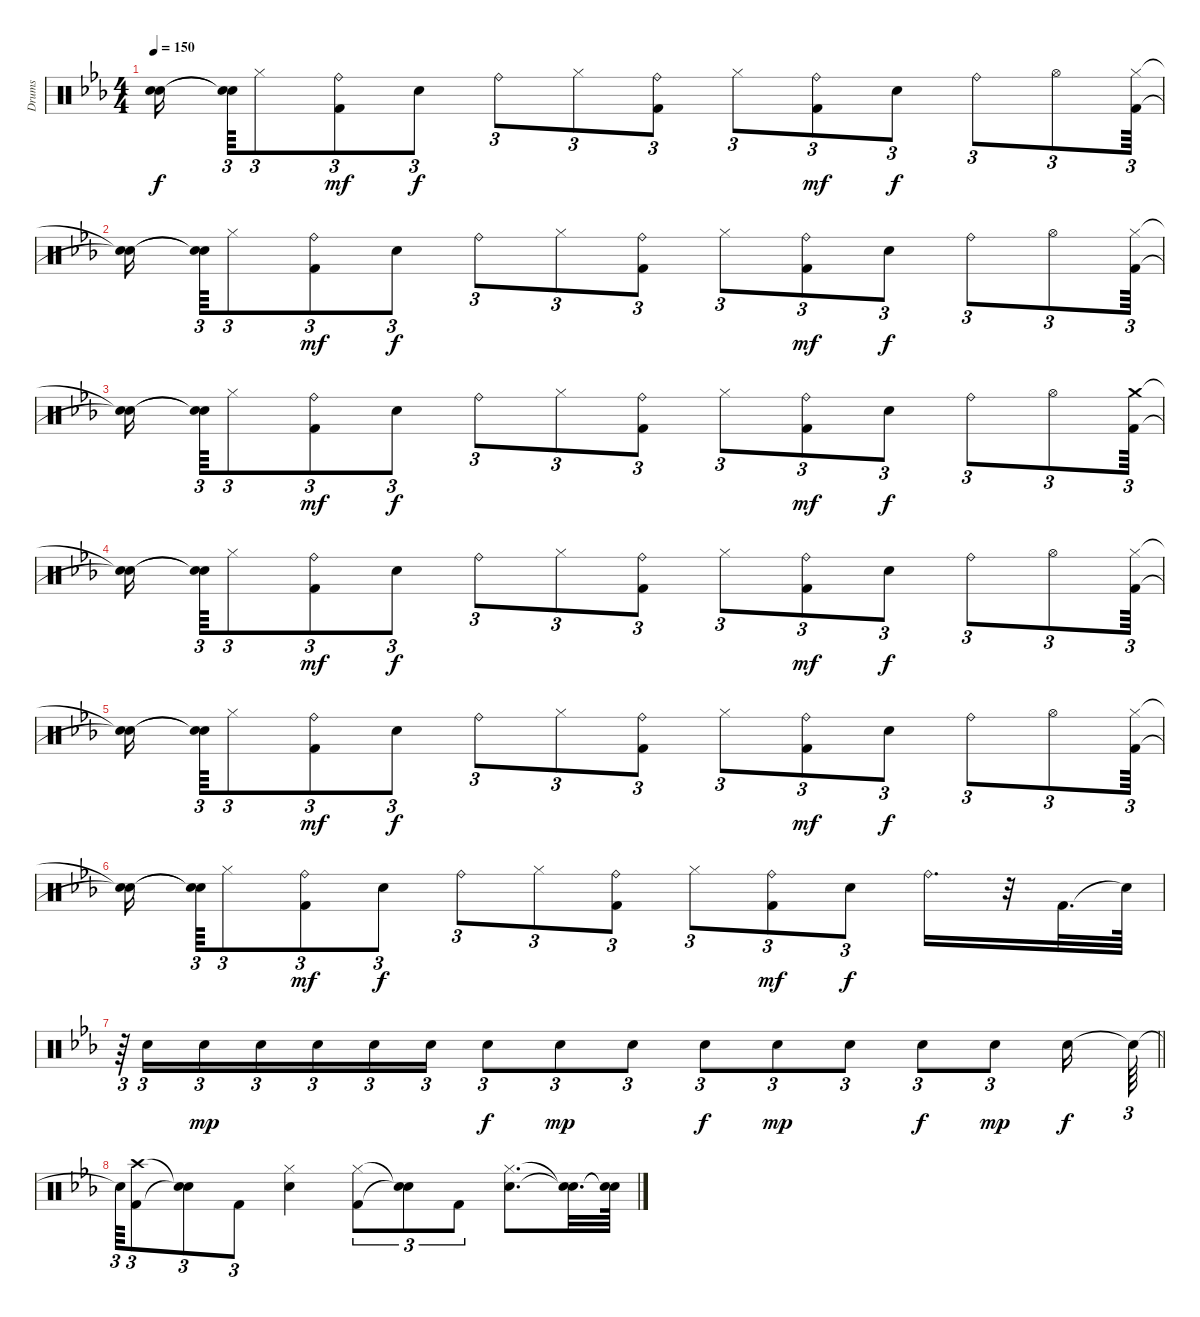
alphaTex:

\track ("Drums" "Drums") {instrument percussion}
\staff {score}
\articulation defaults
\ts (4 4)
\tempo 150
\clef neutral
\ks cminor
("Snare (hit)"{t} "Snare (hit)"{t}).16{dy f beam splitsecondary} ("Snare (hit)"{t} "Snare (hit)"{t}).64{tu (3 2)} "Hi-Hat (closed)".8{tu (3 2)} ("Kick (hit) 2" "Ride (bell)").8{tu (3 2) dy mf} "Electric Snare (hit)".8{tu (3 2) dy f} "Ride (bell)".8{tu (3 2)} "Hi-Hat (closed)".8{tu (3 2)} ("Kick (hit) 2" "Ride (bell)").8{tu (3 2)} "Hi-Hat (closed)".8{tu (3 2)} ("Kick (hit) 2" "Ride (bell)").8{tu (3 2) dy mf} "Electric Snare (hit)".8{tu (3 2) dy f} "Ride (bell)".8{tu (3 2)} "Hi-Hat (open)".8{tu (3 2)} ("Hi-Hat (closed)" "Kick (hit) 2").64{tu (3 2)} |
("Snare (hit)"{t} "Snare (hit)"{t}).16{beam splitsecondary} ("Snare (hit)"{t} "Snare (hit)"{t}).64{tu (3 2)} "Hi-Hat (closed)".8{tu (3 2)} ("Kick (hit) 2" "Ride (bell)").8{tu (3 2) dy mf} "Electric Snare (hit)".8{tu (3 2) dy f} "Ride (bell)".8{tu (3 2)} "Hi-Hat (closed)".8{tu (3 2)} ("Kick (hit) 2" "Ride (bell)").8{tu (3 2)} "Hi-Hat (closed)".8{tu (3 2)} ("Kick (hit) 2" "Ride (bell)").8{tu (3 2) dy mf} "Electric Snare (hit)".8{tu (3 2) dy f} "Ride (bell)".8{tu (3 2)} "Hi-Hat (open)".8{tu (3 2)} ("Kick (hit) 2" "Hi-Hat (closed)").64{tu (3 2)} |
("Snare (hit)"{t} "Snare (hit)"{t}).16{beam splitsecondary} ("Snare (hit)"{t} "Snare (hit)"{t}).64{tu (3 2)} "Hi-Hat (closed)".8{tu (3 2)} ("Kick (hit) 2" "Ride (bell)").8{tu (3 2) dy mf} "Electric Snare (hit)".8{tu (3 2) dy f} "Ride (bell)".8{tu (3 2)} "Hi-Hat (closed)".8{tu (3 2)} ("Kick (hit) 2" "Ride (bell)").8{tu (3 2)} "Hi-Hat (closed)".8{tu (3 2)} ("Kick (hit) 2" "Ride (bell)").8{tu (3 2) dy mf} "Electric Snare (hit)".8{tu (3 2) dy f} "Ride (bell)".8{tu (3 2)} "Hi-Hat (open)".8{tu (3 2)} ("Kick (hit) 2" "Crash medium (hit)").64{tu (3 2)} |
("Snare (hit)"{t} "Snare (hit)"{t}).16{beam splitsecondary} ("Snare (hit)"{t} "Snare (hit)"{t}).64{tu (3 2)} "Hi-Hat (closed)".8{tu (3 2)} ("Kick (hit) 2" "Ride (bell)").8{tu (3 2) dy mf} "Electric Snare (hit)".8{tu (3 2) dy f} "Ride (bell)".8{tu (3 2)} "Hi-Hat (closed)".8{tu (3 2)} ("Kick (hit) 2" "Ride (bell)").8{tu (3 2)} "Hi-Hat (closed)".8{tu (3 2)} ("Kick (hit) 2" "Ride (bell)").8{tu (3 2) dy mf} "Electric Snare (hit)".8{tu (3 2) dy f} "Ride (bell)".8{tu (3 2)} "Hi-Hat (open)".8{tu (3 2)} ("Kick (hit) 2" "Hi-Hat (closed)").64{tu (3 2)} |
("Snare (hit)"{t} "Snare (hit)"{t}).16{beam splitsecondary} ("Snare (hit)"{t} "Snare (hit)"{t}).64{tu (3 2)} "Hi-Hat (closed)".8{tu (3 2)} ("Kick (hit) 2" "Ride (bell)").8{tu (3 2) dy mf} "Electric Snare (hit)".8{tu (3 2) dy f} "Ride (bell)".8{tu (3 2)} "Hi-Hat (closed)".8{tu (3 2)} ("Kick (hit) 2" "Ride (bell)").8{tu (3 2)} "Hi-Hat (closed)".8{tu (3 2)} ("Kick (hit) 2" "Ride (bell)").8{tu (3 2) dy mf} "Electric Snare (hit)".8{tu (3 2) dy f} "Ride (bell)".8{tu (3 2)} "Hi-Hat (open)".8{tu (3 2)} ("Hi-Hat (closed)" "Kick (hit) 2").64{tu (3 2)} |
("Snare (hit)"{t} "Snare (hit)"{t}).16{beam splitsecondary} ("Snare (hit)"{t} "Snare (hit)"{t}).64{tu (3 2)} "Hi-Hat (closed)".8{tu (3 2)} ("Kick (hit) 2" "Ride (bell)").8{tu (3 2) dy mf} "Electric Snare (hit)".8{tu (3 2) dy f} "Ride (bell)".8{tu (3 2)} "Hi-Hat (closed)".8{tu (3 2)} ("Kick (hit) 2" "Ride (bell)").8{tu (3 2)} "Hi-Hat (closed)".8{tu (3 2)} ("Kick (hit) 2" "Ride (bell)").8{tu (3 2) dy mf} "Electric Snare (hit)".8{tu (3 2) dy f} "Ride (bell)".16{d} r.32 "Kick (hit) 2".32{d} "Snare (hit)"{t}.64 |
\barLineRight lightlight
r.64{tu (3 2)} "Electric Snare (hit)".16{tu (3 2)} "Electric Snare (hit)".16{tu (3 2) dy mp} "Electric Snare (hit)".16{tu (3 2)} "Electric Snare (hit)".16{tu (3 2)} "Electric Snare (hit)".16{tu (3 2)} "Electric Snare (hit)".16{tu (3 2)} "Electric Snare (hit)".8{tu (3 2) dy f} "Electric Snare (hit)".8{tu (3 2) dy mp} "Electric Snare (hit)".8{tu (3 2)} "Electric Snare (hit)".8{tu (3 2) dy f} "Electric Snare (hit)".8{tu (3 2) dy mp} "Electric Snare (hit)".8{tu (3 2)} "Electric Snare (hit)".8{tu (3 2) dy f} "Electric Snare (hit)".8{tu (3 2) dy mp} "Electric Snare (hit)".16{dy f} "Snare (hit)"{t}.64{tu (3 2)} |
"Snare (hit)"{t}.64{tu (3 2)} ("Crash high (hit)" "Kick (hit) 2").8{tu (3 2)} ("Snare (hit)"{t} "Snare (hit)"{t}).8{tu (3 2)} "Kick (hit) 2".8{tu (3 2)} ("Hi-Hat (closed)" "Electric Snare (hit)").4 ("Hi-Hat (closed)" "Kick (hit) 2").8{tu (3 2)} ("Snare (hit)"{t} "Snare (hit)"{t}).8{tu (3 2)} "Kick (hit) 2".8{tu (3 2)} ("Hi-Hat (closed)" "Electric Snare (hit)").8{d} ("Snare (hit)"{t} "Snare (hit)"{t}).32{d} ("Snare (hit)"{t} "Snare (hit)"{t}).64
